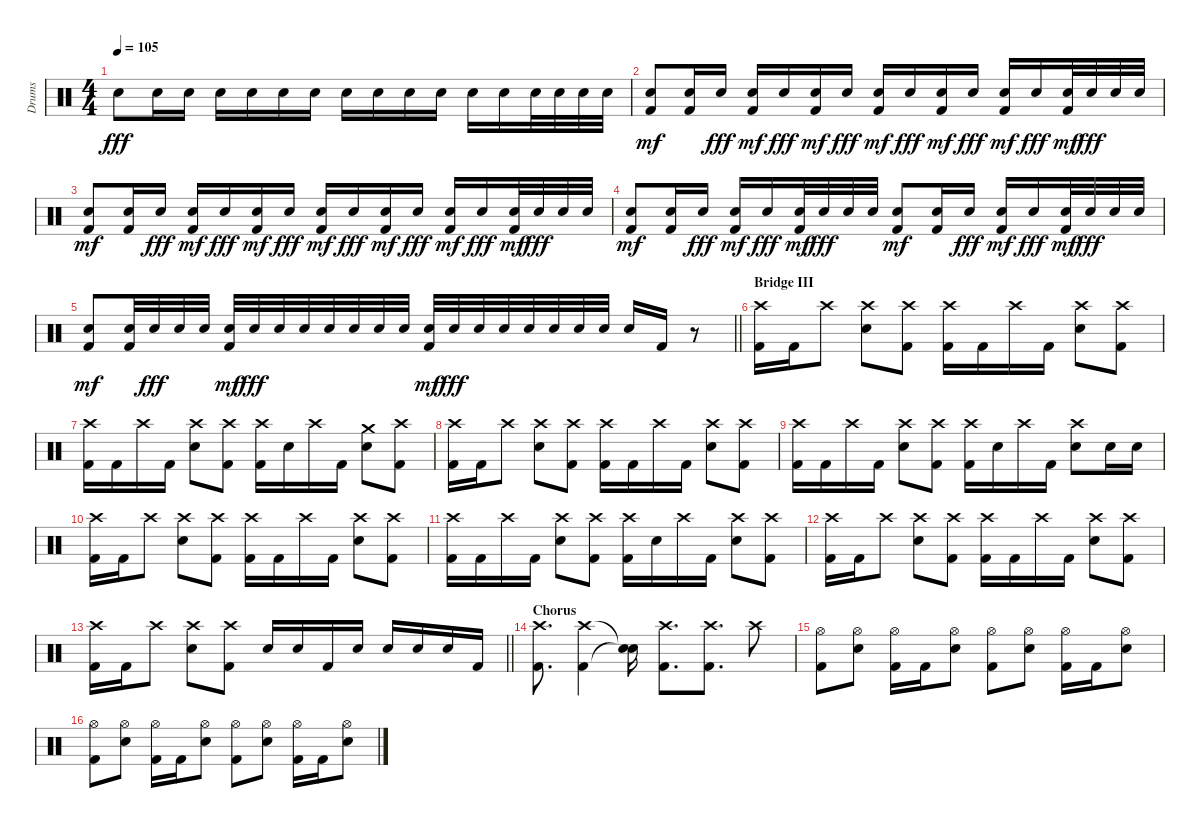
\track ("Drums" "Drums") {instrument percussion}
\staff {score}
\articulation defaults
\ts (4 4)
\tempo 105
\clef neutral
\ks c "Electric Snare (hit)".8{dy fff} "Electric Snare (hit)".16{volume 7} "Electric Snare (hit)".16 "Electric Snare (hit)".16 "Electric Snare (hit)".16 "Electric Snare (hit)".16 "Electric Snare (hit)".16 "Electric Snare (hit)".16 "Electric Snare (hit)".16 "Electric Snare (hit)".16 "Electric Snare (hit)".16 "Electric Snare (hit)".16 "Electric Snare (hit)".16 "Electric Snare (hit)".32 "Electric Snare (hit)".32 "Electric Snare (hit)".32{volume 12} "Electric Snare (hit)".32
|
("Electric Snare (hit)" "Kick (hit) 2").8{dy mf} ("Electric Snare (hit)" "Kick (hit) 2").16{volume 7} "Electric Snare (hit)".16{dy fff} ("Electric Snare (hit)" "Kick (hit) 2").16{dy mf} "Electric Snare (hit)".16{dy fff} ("Electric Snare (hit)" "Kick (hit) 2").16{dy mf} "Electric Snare (hit)".16{dy fff} ("Electric Snare (hit)" "Kick (hit) 2").16{dy mf} "Electric Snare (hit)".16{dy fff} ("Electric Snare (hit)" "Kick (hit) 2").16{dy mf} "Electric Snare (hit)".16{dy fff} ("Electric Snare (hit)" "Kick (hit) 2").16{dy mf} "Electric Snare (hit)".16{dy fff} ("Electric Snare (hit)" "Kick (hit) 2").32{dy mf} "Electric Snare (hit)".32{dy fff} "Electric Snare (hit)".32{volume 12} "Electric Snare (hit)".32 |
("Electric Snare (hit)" "Kick (hit) 2").8{dy mf} ("Electric Snare (hit)" "Kick (hit) 2").16{volume 7} "Electric Snare (hit)".16{dy fff} ("Electric Snare (hit)" "Kick (hit) 2").16{dy mf} "Electric Snare (hit)".16{dy fff} ("Electric Snare (hit)" "Kick (hit) 2").16{dy mf} "Electric Snare (hit)".16{dy fff} ("Electric Snare (hit)" "Kick (hit) 2").16{dy mf} "Electric Snare (hit)".16{dy fff} ("Electric Snare (hit)" "Kick (hit) 2").16{dy mf} "Electric Snare (hit)".16{dy fff} ("Electric Snare (hit)" "Kick (hit) 2").16{dy mf} "Electric Snare (hit)".16{dy fff} ("Electric Snare (hit)" "Kick (hit) 2").32{dy mf} "Electric Snare (hit)".32{dy fff} "Electric Snare (hit)".32{volume 12} "Electric Snare (hit)".32 |
("Electric Snare (hit)" "Kick (hit) 2").8{dy mf} ("Electric Snare (hit)" "Kick (hit) 2").16{volume 7} "Electric Snare (hit)".16{dy fff} ("Electric Snare (hit)" "Kick (hit) 2").16{dy mf} "Electric Snare (hit)".16{dy fff} ("Electric Snare (hit)" "Kick (hit) 2").32{dy mf} "Electric Snare (hit)".32{dy fff} "Electric Snare (hit)".32{volume 12} "Electric Snare (hit)".32 ("Electric Snare (hit)" "Kick (hit) 2").8{dy mf} ("Electric Snare (hit)" "Kick (hit) 2").16{volume 7} "Electric Snare (hit)".16{dy fff} ("Electric Snare (hit)" "Kick (hit) 2").16{dy mf} "Electric Snare (hit)".16{dy fff} ("Electric Snare (hit)" "Kick (hit) 2").32{dy mf} "Electric Snare (hit)".32{dy fff} "Electric Snare (hit)".32{volume 12} "Electric Snare (hit)".32 |
\barLineRight lightlight
("Electric Snare (hit)" "Kick (hit) 2").8{dy mf} ("Electric Snare (hit)" "Kick (hit) 2").32{volume 7} "Electric Snare (hit)".32{dy fff} "Electric Snare (hit)".32 "Electric Snare (hit)".32 ("Electric Snare (hit)" "Kick (hit) 2").32{dy mf} "Electric Snare (hit)".32{dy fff} "Electric Snare (hit)".32 "Electric Snare (hit)".32 "Electric Snare (hit)".32 "Electric Snare (hit)".32 "Electric Snare (hit)".32 "Electric Snare (hit)".32 ("Electric Snare (hit)" "Kick (hit) 2").32{dy mf} "Electric Snare (hit)".32{dy fff} "Electric Snare (hit)".32 "Electric Snare (hit)".32 "Electric Snare (hit)".32 "Electric Snare (hit)".32 "Electric Snare (hit)".32 "Electric Snare (hit)".32 "Electric Snare (hit)".16{volume 16} "Kick (hit) 2".16 r.8 |
\section ("" "Bridge III")
("Crash high (hit)" "Kick (hit) 2").16{volume 16} "Kick (hit) 2".16 "Crash high (hit)".8 ("Crash high (hit)" "Electric Snare (hit)").8 ("Crash high (hit)" "Kick (hit) 2").8 ("Crash high (hit)" "Kick (hit) 2").16 "Kick (hit) 2".16 "Crash high (hit)".16 "Kick (hit) 2".16 ("Crash high (hit)" "Electric Snare (hit)").8 ("Crash high (hit)" "Kick (hit) 2").8 |
("Crash high (hit)" "Kick (hit) 2").16 "Kick (hit) 2".16 "Crash high (hit)".16 "Kick (hit) 2".16 ("Crash high (hit)" "Electric Snare (hit)").8 ("Crash high (hit)" "Kick (hit) 2").8 ("Crash high (hit)" "Kick (hit) 2").16 "Electric Snare (hit)".16 "Crash high (hit)".16 "Kick (hit) 2".16 ("Crash medium (hit)" "Electric Snare (hit)").8 ("Crash high (hit)" "Kick (hit) 2").8 |
("Crash high (hit)" "Kick (hit) 2").16 "Kick (hit) 2".16 "Crash high (hit)".8 ("Crash high (hit)" "Electric Snare (hit)").8 ("Crash high (hit)" "Kick (hit) 2").8 ("Crash high (hit)" "Kick (hit) 2").16 "Kick (hit) 2".16 "Crash high (hit)".16 "Kick (hit) 2".16 ("Crash high (hit)" "Electric Snare (hit)").8 ("Crash high (hit)" "Kick (hit) 2").8 |
("Crash high (hit)" "Kick (hit) 2").16 "Kick (hit) 2".16 "Crash high (hit)".16 "Kick (hit) 2".16 ("Crash high (hit)" "Electric Snare (hit)").8 ("Crash high (hit)" "Kick (hit) 2").8 ("Crash high (hit)" "Kick (hit) 2").16 "Electric Snare (hit)".16 "Crash high (hit)".16 "Kick (hit) 2".16 ("Crash high (hit)" "Electric Snare (hit)").8 "Electric Snare (hit)".16 "Electric Snare (hit)".16 |
("Crash high (hit)" "Kick (hit) 2").16 "Kick (hit) 2".16 "Crash high (hit)".8 ("Crash high (hit)" "Electric Snare (hit)").8 ("Crash high (hit)" "Kick (hit) 2").8 ("Crash high (hit)" "Kick (hit) 2").16 "Kick (hit) 2".16 "Crash high (hit)".16 "Kick (hit) 2".16 ("Crash high (hit)" "Electric Snare (hit)").8 ("Crash high (hit)" "Kick (hit) 2").8 |
("Crash high (hit)" "Kick (hit) 2").16 "Kick (hit) 2".16 "Crash high (hit)".16 "Kick (hit) 2".16 ("Crash high (hit)" "Electric Snare (hit)").8 ("Crash high (hit)" "Kick (hit) 2").8 ("Crash high (hit)" "Kick (hit) 2").16 "Electric Snare (hit)".16 "Crash high (hit)".16 "Kick (hit) 2".16 ("Crash high (hit)" "Electric Snare (hit)").8 ("Crash high (hit)" "Kick (hit) 2").8 |
("Crash high (hit)" "Kick (hit) 2").16 "Kick (hit) 2".16 "Crash high (hit)".8 ("Crash high (hit)" "Electric Snare (hit)").8 ("Crash high (hit)" "Kick (hit) 2").8 ("Crash high (hit)" "Kick (hit) 2").16 "Kick (hit) 2".16 "Crash high (hit)".16 "Kick (hit) 2".16 ("Crash high (hit)" "Electric Snare (hit)").8 ("Crash high (hit)" "Kick (hit) 2").8 |
\barLineRight lightlight
("Crash high (hit)" "Kick (hit) 2").16 "Kick (hit) 2".16 "Crash high (hit)".8 ("Crash high (hit)" "Electric Snare (hit)").8 ("Crash high (hit)" "Kick (hit) 2").8 "Electric Snare (hit)".16 "Electric Snare (hit)".16 "Kick (hit) 2".16 "Electric Snare (hit)".16 "Electric Snare (hit)".16 "Electric Snare (hit)".16 "Electric Snare (hit)".16 "Kick (hit) 2".16 |
\section ("" "Chorus")
("Crash high (hit)" "Kick (hit) 2").8{d} ("Crash high (hit)" "Kick (hit) 2").4 ("Snare (hit)"{t} "Snare (hit)"{t}).16 ("Crash high (hit)" "Kick (hit) 2").8{d} ("Crash high (hit)" "Kick (hit) 2").8{d} "Crash high (hit)".8 |
("Hi-Hat (open)" "Kick (hit) 2").8 ("Hi-Hat (open)" "Electric Snare (hit)").8 ("Hi-Hat (open)" "Kick (hit) 2").16 "Kick (hit) 2".16 ("Hi-Hat (open)" "Electric Snare (hit)").8 ("Hi-Hat (open)" "Kick (hit) 2").8 ("Hi-Hat (open)" "Electric Snare (hit)").8 ("Hi-Hat (open)" "Kick (hit) 2").16 "Kick (hit) 2".16 ("Hi-Hat (open)" "Electric Snare (hit)").8 |
("Hi-Hat (open)" "Kick (hit) 2").8 ("Hi-Hat (open)" "Electric Snare (hit)").8 ("Hi-Hat (open)" "Kick (hit) 2").16 "Kick (hit) 2".16 ("Hi-Hat (open)" "Electric Snare (hit)").8 ("Hi-Hat (open)" "Kick (hit) 2").8 ("Hi-Hat (open)" "Electric Snare (hit)").8 ("Hi-Hat (open)" "Kick (hit) 2").16 "Kick (hit) 2".16 ("Hi-Hat (open)" "Electric Snare (hit)").8
